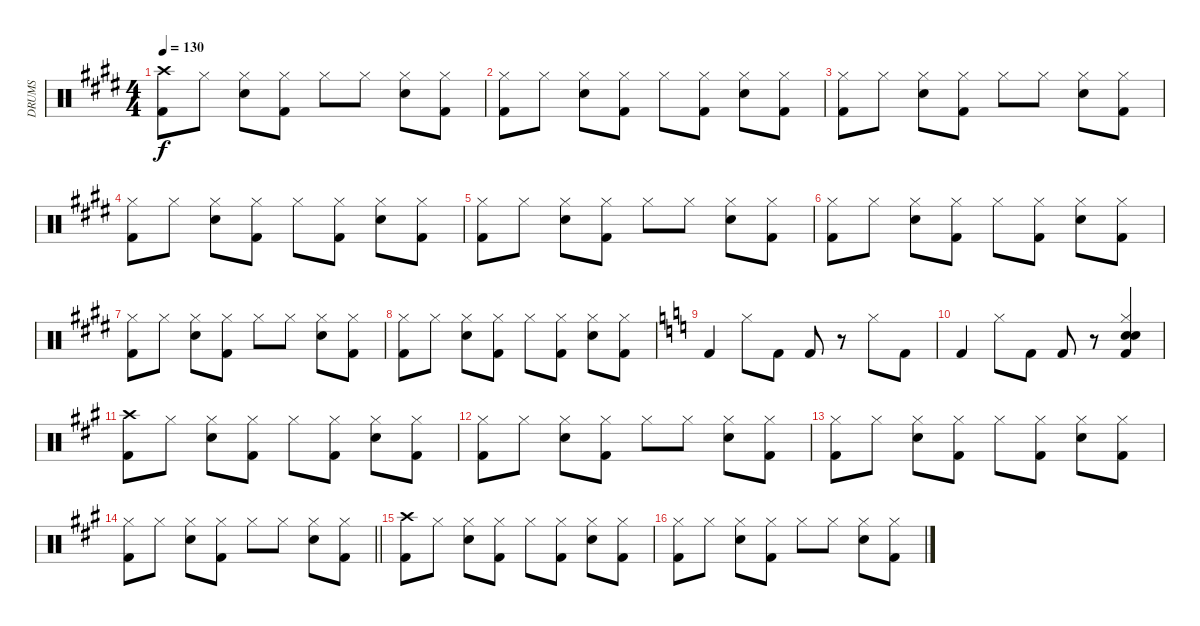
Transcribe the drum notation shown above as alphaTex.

\track ("DRUMS" "DRUMS") {instrument percussion}
\staff {score}
\articulation defaults
\ts (4 4)
\tempo 130
\clef neutral
\ks e
("Crash high (hit)" "Kick (hit) 2").8{dy f balance 8} "Hi-Hat (closed)".8 ("Hi-Hat (closed)" "Snare (hit) 2").8 ("Hi-Hat (closed)" "Kick (hit) 2").8 "Hi-Hat (closed)".8 "Hi-Hat (closed)".8 ("Hi-Hat (closed)" "Snare (hit) 2").8 ("Hi-Hat (closed)" "Kick (hit) 2").8 |
\ks c#minor
("Hi-Hat (closed)" "Kick (hit) 2").8 "Hi-Hat (closed)".8 ("Hi-Hat (closed)" "Snare (hit) 2").8 ("Hi-Hat (closed)" "Kick (hit) 2").8 "Hi-Hat (closed)".8 ("Hi-Hat (closed)" "Kick (hit) 2").8 ("Hi-Hat (closed)" "Snare (hit) 2").8 ("Hi-Hat (closed)" "Kick (hit) 2").8 |
("Hi-Hat (closed)" "Kick (hit) 2").8 "Hi-Hat (closed)".8 ("Hi-Hat (closed)" "Snare (hit) 2").8 ("Hi-Hat (closed)" "Kick (hit) 2").8 "Hi-Hat (closed)".8 "Hi-Hat (closed)".8 ("Hi-Hat (closed)" "Snare (hit) 2").8 ("Hi-Hat (closed)" "Kick (hit) 2").8 |
("Hi-Hat (closed)" "Kick (hit) 2").8 "Hi-Hat (closed)".8 ("Hi-Hat (closed)" "Snare (hit) 2").8 ("Hi-Hat (closed)" "Kick (hit) 2").8 "Hi-Hat (closed)".8 ("Hi-Hat (closed)" "Kick (hit) 2").8 ("Hi-Hat (closed)" "Snare (hit) 2").8 ("Hi-Hat (closed)" "Kick (hit) 2").8 |
\ks e
("Hi-Hat (closed)" "Kick (hit) 2").8 "Hi-Hat (closed)".8 ("Hi-Hat (closed)" "Snare (hit) 2").8 ("Hi-Hat (closed)" "Kick (hit) 2").8 "Hi-Hat (closed)".8 "Hi-Hat (closed)".8 ("Hi-Hat (closed)" "Snare (hit) 2").8 ("Hi-Hat (closed)" "Kick (hit) 2").8 |
\ks c#minor
("Hi-Hat (closed)" "Kick (hit) 2").8 "Hi-Hat (closed)".8 ("Hi-Hat (closed)" "Snare (hit) 2").8 ("Hi-Hat (closed)" "Kick (hit) 2").8 "Hi-Hat (closed)".8 ("Hi-Hat (closed)" "Kick (hit) 2").8 ("Hi-Hat (closed)" "Snare (hit) 2").8 ("Hi-Hat (closed)" "Kick (hit) 2").8 |
("Hi-Hat (closed)" "Kick (hit) 2").8 "Hi-Hat (closed)".8 ("Hi-Hat (closed)" "Snare (hit) 2").8 ("Hi-Hat (closed)" "Kick (hit) 2").8 "Hi-Hat (closed)".8 "Hi-Hat (closed)".8 ("Hi-Hat (closed)" "Snare (hit) 2").8 ("Hi-Hat (closed)" "Kick (hit) 2").8 |
("Hi-Hat (closed)" "Kick (hit) 2").8 "Hi-Hat (closed)".8 ("Hi-Hat (closed)" "Snare (hit) 2").8 ("Hi-Hat (closed)" "Kick (hit) 2").8 "Hi-Hat (closed)".8 ("Hi-Hat (closed)" "Kick (hit) 2").8 ("Hi-Hat (closed)" "Snare (hit) 2").8 ("Hi-Hat (closed)" "Kick (hit) 2").8 |
\ks c "Kick (hit) 2".4 "Hi-Hat (closed)".8 "Kick (hit) 2".8 "Kick (hit) 2".8
r.8 "Hi-Hat (closed)".8 "Kick (hit) 2".8 |
"Kick (hit) 2".4 "Hi-Hat (closed)".8 "Kick (hit) 2".8 "Kick (hit) 2".8 r.8 ("Hi-Hat (closed)" "Snare (hit) 2" "Snare (hit) 2" "Kick (hit) 2").4 |
\ks a
("Crash high (hit)" "Kick (hit) 2").8 "Hi-Hat (closed)".8 ("Hi-Hat (closed)" "Snare (hit) 2").8 ("Hi-Hat (closed)" "Kick (hit) 2").8 "Hi-Hat (closed)".8 ("Hi-Hat (closed)" "Kick (hit) 2").8 ("Hi-Hat (closed)" "Snare (hit) 2").8 ("Hi-Hat (closed)" "Kick (hit) 2").8 |
("Hi-Hat (closed)" "Kick (hit) 2").8 "Hi-Hat (closed)".8 ("Hi-Hat (closed)" "Snare (hit) 2").8 ("Hi-Hat (closed)" "Kick (hit) 2").8 "Hi-Hat (closed)".8 "Hi-Hat (closed)".8 ("Hi-Hat (closed)" "Snare (hit) 2").8 ("Hi-Hat (closed)" "Kick (hit) 2").8 |
("Hi-Hat (closed)" "Kick (hit) 2").8 "Hi-Hat (closed)".8 ("Hi-Hat (closed)" "Snare (hit) 2").8 ("Hi-Hat (closed)" "Kick (hit) 2").8 "Hi-Hat (closed)".8 ("Hi-Hat (closed)" "Kick (hit) 2").8 ("Hi-Hat (closed)" "Snare (hit) 2").8 ("Hi-Hat (closed)" "Kick (hit) 2").8 |
\barLineRight lightlight
("Hi-Hat (closed)" "Kick (hit) 2").8 "Hi-Hat (closed)".8 ("Hi-Hat (closed)" "Snare (hit) 2").8 ("Hi-Hat (closed)" "Kick (hit) 2").8 "Hi-Hat (closed)".8 "Hi-Hat (closed)".8 ("Hi-Hat (closed)" "Snare (hit) 2").8 ("Hi-Hat (closed)" "Kick (hit) 2").8 |
("Crash high (hit)" "Kick (hit) 2").8 "Hi-Hat (closed)".8 ("Hi-Hat (closed)" "Snare (hit) 2").8 ("Hi-Hat (closed)" "Kick (hit) 2").8 "Hi-Hat (closed)".8 ("Hi-Hat (closed)" "Kick (hit) 2").8 ("Hi-Hat (closed)" "Snare (hit) 2").8 ("Hi-Hat (closed)" "Kick (hit) 2").8 |
("Hi-Hat (closed)" "Kick (hit) 2").8 "Hi-Hat (closed)".8 ("Hi-Hat (closed)" "Snare (hit) 2").8 ("Hi-Hat (closed)" "Kick (hit) 2").8 "Hi-Hat (closed)".8 "Hi-Hat (closed)".8 ("Hi-Hat (closed)" "Snare (hit) 2").8 ("Hi-Hat (closed)" "Kick (hit) 2").8
